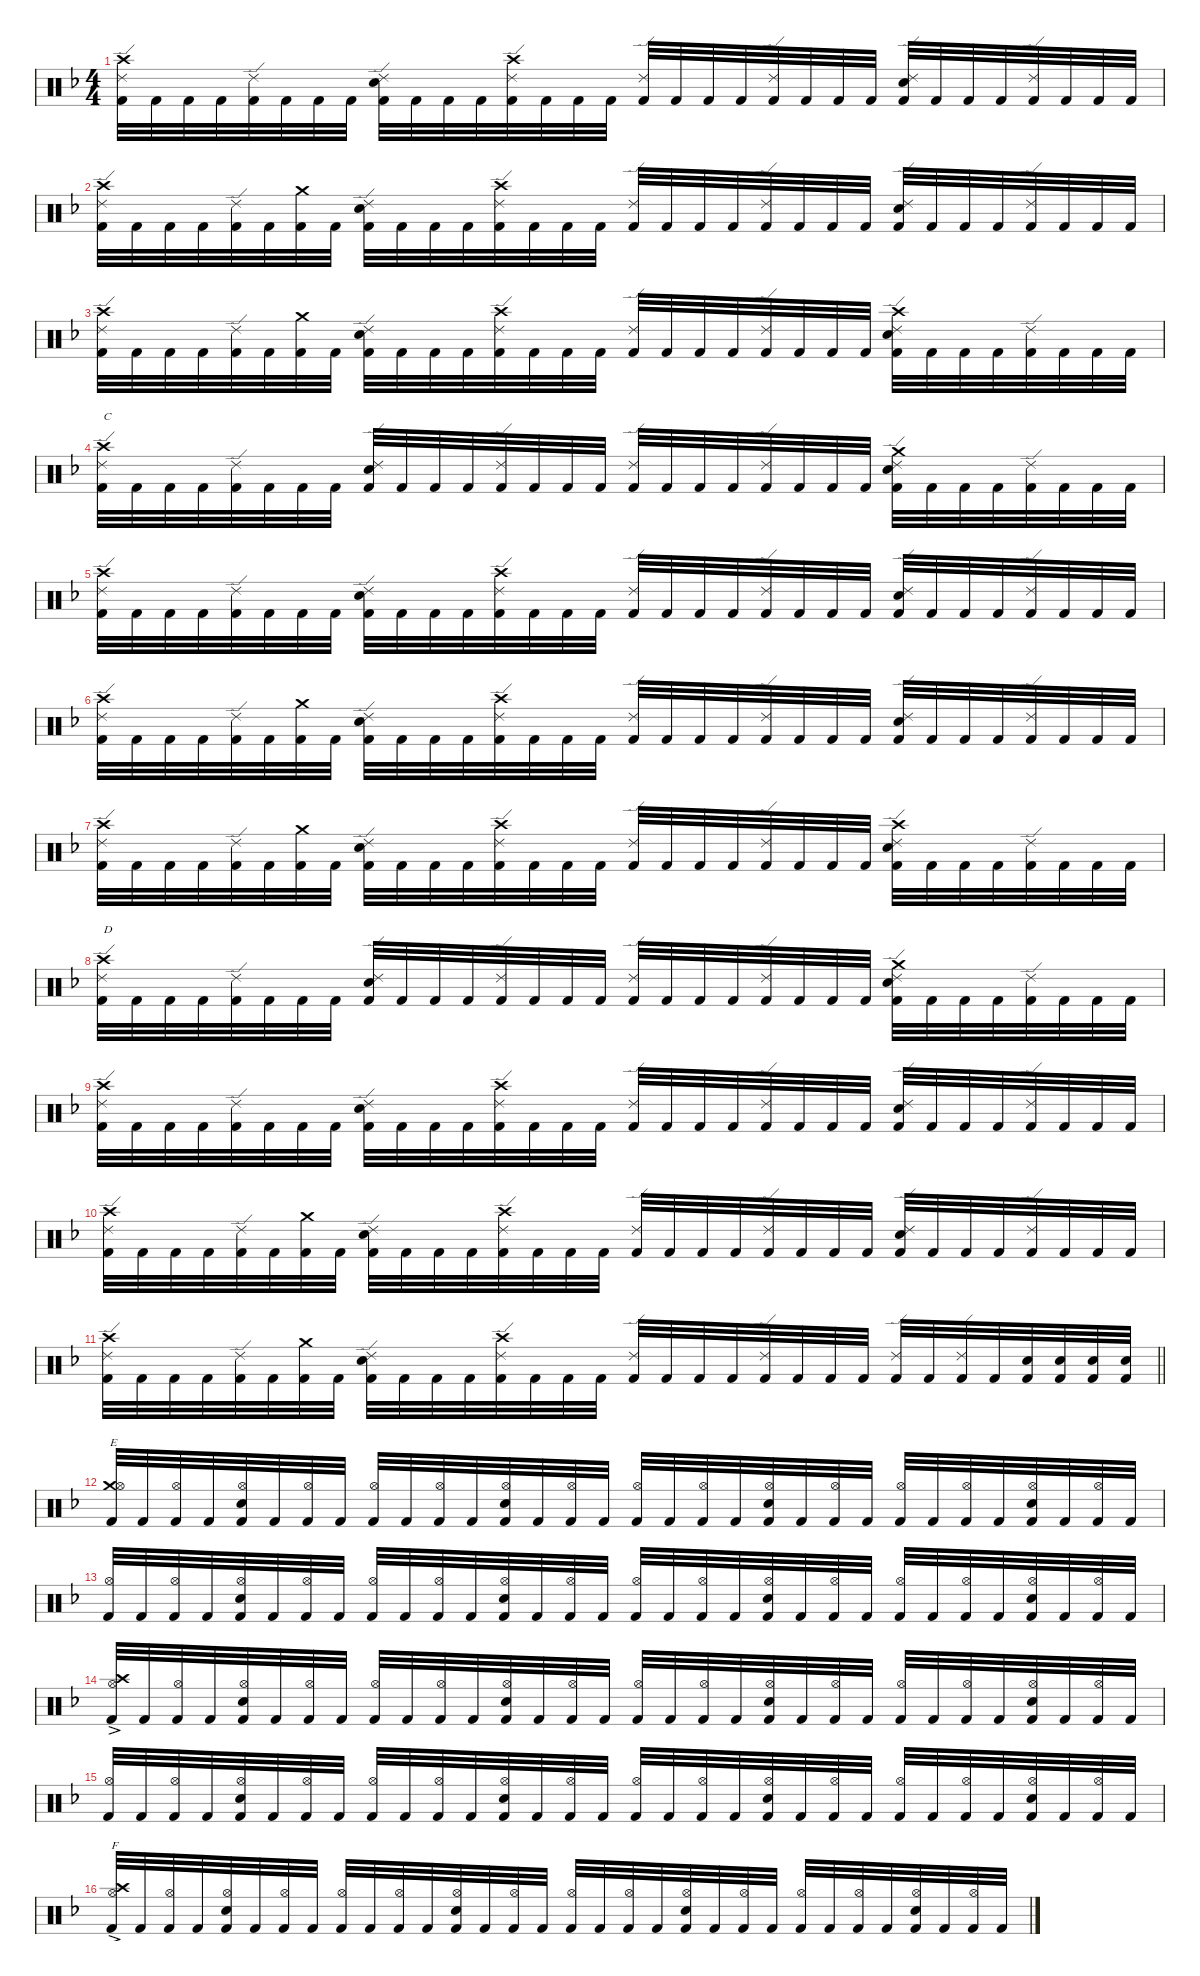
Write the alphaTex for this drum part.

\defaultSystemsLayout 4
\hideDynamics
\bracketExtendMode nobrackets
\singleTrackTrackNamePolicy hidden
\multiTrackTrackNamePolicy hidden
\otherSystemsTrackNameOrientation horizontal
\track ("Martin Lopez - Drums" "drm.") {defaultSystemsLayout 4 instrument percussion}
\staff {score}
\articulation defaults
\ts (4 4)
\tempo (85 hide)
\clef neutral
\ks dminor
("Crash high (hit)"{acc forcenatural} "Ride (edge) 2"{acc forcenatural} "Kick (hit) 2"{acc forcenatural}).32{dy f beam Down} "Kick (hit) 2"{acc forcenatural}.32{beam Down} "Kick (hit) 2"{acc forcenatural}.32{beam Down} "Kick (hit) 2"{acc forcenatural}.32{beam Down} ("Ride (edge) 2"{acc forcenatural} "Kick (hit) 2"{acc forcenatural}).32{beam Down} "Kick (hit) 2"{acc forcenatural}.32{beam Down} "Kick (hit) 2"{acc forcenatural}.32{beam Down} "Kick (hit) 2"{acc forcenatural}.32{beam Down} ("Ride (edge) 2"{acc forcenatural} "Snare (hit) 2"{acc forcenatural} "Kick (hit) 2"{acc forcenatural}).32{beam Down} "Kick (hit) 2"{acc forcenatural}.32{beam Down} "Kick (hit) 2"{acc forcenatural}.32{beam Down} "Kick (hit) 2"{acc forcenatural}.32{beam Down} ("Crash high (hit)"{acc forcenatural} "Ride (edge) 2"{acc forcenatural} "Kick (hit) 2"{acc forcenatural}).32{beam Down} "Kick (hit) 2"{acc forcenatural}.32{beam Down} "Kick (hit) 2"{acc forcenatural}.32{beam Down} "Kick (hit) 2"{acc forcenatural}.32{beam Down} ("Ride (edge) 2"{acc forcenatural} "Kick (hit) 2"{acc forcenatural}).32{beam Up} "Kick (hit) 2"{acc forcenatural}.32{beam Up} "Kick (hit) 2"{acc forcenatural}.32{beam Up} "Kick (hit) 2"{acc forcenatural}.32{beam Up} ("Ride (edge) 2"{acc forcenatural} "Kick (hit) 2"{acc forcenatural}).32{beam Up} "Kick (hit) 2"{acc forcenatural}.32{beam Up} "Kick (hit) 2"{acc forcenatural}.32{beam Up} "Kick (hit) 2"{acc forcenatural}.32{beam Up} ("Ride (edge) 2"{acc forcenatural} "Snare (hit) 2"{acc forcenatural} "Kick (hit) 2"{acc forcenatural}).32{beam Up} "Kick (hit) 2"{acc forcenatural}.32{beam Up} "Kick (hit) 2"{acc forcenatural}.32{beam Up} "Kick (hit) 2"{acc forcenatural}.32{beam Up} ("Ride (edge) 2"{acc forcenatural} "Kick (hit) 2"{acc forcenatural}).32{beam Up} "Kick (hit) 2"{acc forcenatural}.32{beam Up} "Kick (hit) 2"{acc forcenatural}.32{beam Up} "Kick (hit) 2"{acc forcenatural}.32{beam Up} |
\tempo (84 hide)
("Crash high (hit)"{acc forcenatural} "Ride (edge) 2"{acc forcenatural} "Kick (hit) 2"{acc forcenatural}).32{beam Down} "Kick (hit) 2"{acc forcenatural}.32{beam Down} "Kick (hit) 2"{acc forcenatural}.32{beam Down} "Kick (hit) 2"{acc forcenatural}.32{beam Down} ("Ride (edge) 2"{acc forcenatural} "Kick (hit) 2"{acc forcenatural}).32{beam Down} "Kick (hit) 2"{acc forcenatural}.32{beam Down} ("Crash medium (hit)"{acc forcenatural} "Kick (hit) 2"{acc forcenatural}).32{beam Down} "Kick (hit) 2"{acc forcenatural}.32{beam Down} ("Ride (edge) 2"{acc forcenatural} "Snare (hit) 2"{acc forcenatural} "Kick (hit) 2"{acc forcenatural}).32{beam Down} "Kick (hit) 2"{acc forcenatural}.32{beam Down} "Kick (hit) 2"{acc forcenatural}.32{beam Down} "Kick (hit) 2"{acc forcenatural}.32{beam Down} ("Crash high (hit)"{acc forcenatural} "Ride (edge) 2"{acc forcenatural} "Kick (hit) 2"{acc forcenatural}).32{beam Down} "Kick (hit) 2"{acc forcenatural}.32{beam Down} "Kick (hit) 2"{acc forcenatural}.32{beam Down} "Kick (hit) 2"{acc forcenatural}.32{beam Down} ("Ride (edge) 2"{acc forcenatural} "Kick (hit) 2"{acc forcenatural}).32{beam Up} "Kick (hit) 2"{acc forcenatural}.32{beam Up} "Kick (hit) 2"{acc forcenatural}.32{beam Up} "Kick (hit) 2"{acc forcenatural}.32{beam Up} ("Ride (edge) 2"{acc forcenatural} "Kick (hit) 2"{acc forcenatural}).32{beam Up} "Kick (hit) 2"{acc forcenatural}.32{beam Up} "Kick (hit) 2"{acc forcenatural}.32{beam Up} "Kick (hit) 2"{acc forcenatural}.32{beam Up} ("Ride (edge) 2"{acc forcenatural} "Snare (hit) 2"{acc forcenatural} "Kick (hit) 2"{acc forcenatural}).32{beam Up} "Kick (hit) 2"{acc forcenatural}.32{beam Up} "Kick (hit) 2"{acc forcenatural}.32{beam Up} "Kick (hit) 2"{acc forcenatural}.32{beam Up} ("Ride (edge) 2"{acc forcenatural} "Kick (hit) 2"{acc forcenatural}).32{beam Up} "Kick (hit) 2"{acc forcenatural}.32{beam Up} "Kick (hit) 2"{acc forcenatural}.32{beam Up} "Kick (hit) 2"{acc forcenatural}.32{beam Up} |
\tempo (85 hide)
("Crash high (hit)"{acc forcenatural} "Ride (edge) 2"{acc forcenatural} "Kick (hit) 2"{acc forcenatural}).32{beam Down} "Kick (hit) 2"{acc forcenatural}.32{beam Down} "Kick (hit) 2"{acc forcenatural}.32{beam Down} "Kick (hit) 2"{acc forcenatural}.32{beam Down} ("Ride (edge) 2"{acc forcenatural} "Kick (hit) 2"{acc forcenatural}).32{beam Down} "Kick (hit) 2"{acc forcenatural}.32{beam Down} ("Crash medium (hit)"{acc forcenatural} "Kick (hit) 2"{acc forcenatural}).32{beam Down} "Kick (hit) 2"{acc forcenatural}.32{beam Down} ("Ride (edge) 2"{acc forcenatural} "Snare (hit) 2"{acc forcenatural} "Kick (hit) 2"{acc forcenatural}).32{beam Down} "Kick (hit) 2"{acc forcenatural}.32{beam Down} "Kick (hit) 2"{acc forcenatural}.32{beam Down} "Kick (hit) 2"{acc forcenatural}.32{beam Down} ("Crash high (hit)"{acc forcenatural} "Ride (edge) 2"{acc forcenatural} "Kick (hit) 2"{acc forcenatural}).32{beam Down} "Kick (hit) 2"{acc forcenatural}.32{beam Down} "Kick (hit) 2"{acc forcenatural}.32{beam Down} "Kick (hit) 2"{acc forcenatural}.32{beam Down} ("Ride (edge) 2"{acc forcenatural} "Kick (hit) 2"{acc forcenatural}).32{beam Up} "Kick (hit) 2"{acc forcenatural}.32{beam Up} "Kick (hit) 2"{acc forcenatural}.32{beam Up} "Kick (hit) 2"{acc forcenatural}.32{beam Up} ("Ride (edge) 2"{acc forcenatural} "Kick (hit) 2"{acc forcenatural}).32{beam Up} "Kick (hit) 2"{acc forcenatural}.32{beam Up} "Kick (hit) 2"{acc forcenatural}.32{beam Up} "Kick (hit) 2"{acc forcenatural}.32{beam Up} ("Crash high (hit)"{acc forcenatural} "Ride (edge) 2"{acc forcenatural} "Snare (hit) 2"{acc forcenatural} "Kick (hit) 2"{acc forcenatural}).32{beam Down} "Kick (hit) 2"{acc forcenatural}.32{beam Down} "Kick (hit) 2"{acc forcenatural}.32{beam Down} "Kick (hit) 2"{acc forcenatural}.32{beam Down} ("Ride (edge) 2"{acc forcenatural} "Kick (hit) 2"{acc forcenatural}).32{beam Down} "Kick (hit) 2"{acc forcenatural}.32{beam Down} "Kick (hit) 2"{acc forcenatural}.32{beam Down} "Kick (hit) 2"{acc forcenatural}.32{beam Down} |
\tempo (84 hide)
("Crash high (hit)"{acc forcenatural} "Ride (edge) 2"{acc forcenatural} "Kick (hit) 2"{acc forcenatural}).32{txt "C" beam Down} "Kick (hit) 2"{acc forcenatural}.32{beam Down} "Kick (hit) 2"{acc forcenatural}.32{beam Down} "Kick (hit) 2"{acc forcenatural}.32{beam Down} ("Ride (edge) 2"{acc forcenatural} "Kick (hit) 2"{acc forcenatural}).32{beam Down} "Kick (hit) 2"{acc forcenatural}.32{beam Down} "Kick (hit) 2"{acc forcenatural}.32{beam Down} "Kick (hit) 2"{acc forcenatural}.32{beam Down} ("Ride (edge) 2"{acc forcenatural} "Snare (hit) 2"{acc forcenatural} "Kick (hit) 2"{acc forcenatural}).32{beam Up} "Kick (hit) 2"{acc forcenatural}.32{beam Up} "Kick (hit) 2"{acc forcenatural}.32{beam Up} "Kick (hit) 2"{acc forcenatural}.32{beam Up} ("Ride (edge) 2"{acc forcenatural} "Kick (hit) 2"{acc forcenatural}).32{beam Up} "Kick (hit) 2"{acc forcenatural}.32{beam Up} "Kick (hit) 2"{acc forcenatural}.32{beam Up} "Kick (hit) 2"{acc forcenatural}.32{beam Up} ("Ride (edge) 2"{acc forcenatural} "Kick (hit) 2"{acc forcenatural}).32{beam Up} "Kick (hit) 2"{acc forcenatural}.32{beam Up} "Kick (hit) 2"{acc forcenatural}.32{beam Up} "Kick (hit) 2"{acc forcenatural}.32{beam Up} ("Ride (edge) 2"{acc forcenatural} "Kick (hit) 2"{acc forcenatural}).32{beam Up} "Kick (hit) 2"{acc forcenatural}.32{beam Up} "Kick (hit) 2"{acc forcenatural}.32{beam Up} "Kick (hit) 2"{acc forcenatural}.32{beam Up} ("Crash medium (hit)"{acc forcenatural} "Ride (edge) 2"{acc forcenatural} "Snare (hit) 2"{acc forcenatural} "Kick (hit) 2"{acc forcenatural}).32{beam Down} "Kick (hit) 2"{acc forcenatural}.32{beam Down} "Kick (hit) 2"{acc forcenatural}.32{beam Down} "Kick (hit) 2"{acc forcenatural}.32{beam Down} ("Ride (edge) 2"{acc forcenatural} "Kick (hit) 2"{acc forcenatural}).32{beam Down} "Kick (hit) 2"{acc forcenatural}.32{beam Down} "Kick (hit) 2"{acc forcenatural}.32{beam Down} "Kick (hit) 2"{acc forcenatural}.32{beam Down} |
\tempo (85 hide)
("Crash high (hit)"{acc forcenatural} "Ride (edge) 2"{acc forcenatural} "Kick (hit) 2"{acc forcenatural}).32{beam Down} "Kick (hit) 2"{acc forcenatural}.32{beam Down} "Kick (hit) 2"{acc forcenatural}.32{beam Down} "Kick (hit) 2"{acc forcenatural}.32{beam Down} ("Ride (edge) 2"{acc forcenatural} "Kick (hit) 2"{acc forcenatural}).32{beam Down} "Kick (hit) 2"{acc forcenatural}.32{beam Down} "Kick (hit) 2"{acc forcenatural}.32{beam Down} "Kick (hit) 2"{acc forcenatural}.32{beam Down} ("Ride (edge) 2"{acc forcenatural} "Snare (hit) 2"{acc forcenatural} "Kick (hit) 2"{acc forcenatural}).32{beam Down} "Kick (hit) 2"{acc forcenatural}.32{beam Down} "Kick (hit) 2"{acc forcenatural}.32{beam Down} "Kick (hit) 2"{acc forcenatural}.32{beam Down} ("Crash high (hit)"{acc forcenatural} "Ride (edge) 2"{acc forcenatural} "Kick (hit) 2"{acc forcenatural}).32{beam Down} "Kick (hit) 2"{acc forcenatural}.32{beam Down} "Kick (hit) 2"{acc forcenatural}.32{beam Down} "Kick (hit) 2"{acc forcenatural}.32{beam Down} ("Ride (edge) 2"{acc forcenatural} "Kick (hit) 2"{acc forcenatural}).32{beam Up} "Kick (hit) 2"{acc forcenatural}.32{beam Up} "Kick (hit) 2"{acc forcenatural}.32{beam Up} "Kick (hit) 2"{acc forcenatural}.32{beam Up} ("Ride (edge) 2"{acc forcenatural} "Kick (hit) 2"{acc forcenatural}).32{beam Up} "Kick (hit) 2"{acc forcenatural}.32{beam Up} "Kick (hit) 2"{acc forcenatural}.32{beam Up} "Kick (hit) 2"{acc forcenatural}.32{beam Up} ("Ride (edge) 2"{acc forcenatural} "Snare (hit) 2"{acc forcenatural} "Kick (hit) 2"{acc forcenatural}).32{beam Up} "Kick (hit) 2"{acc forcenatural}.32{beam Up} "Kick (hit) 2"{acc forcenatural}.32{beam Up} "Kick (hit) 2"{acc forcenatural}.32{beam Up} ("Ride (edge) 2"{acc forcenatural} "Kick (hit) 2"{acc forcenatural}).32{beam Up} "Kick (hit) 2"{acc forcenatural}.32{beam Up} "Kick (hit) 2"{acc forcenatural}.32{beam Up} "Kick (hit) 2"{acc forcenatural}.32{beam Up} |
\tempo (84 hide)
("Crash high (hit)"{acc forcenatural} "Ride (edge) 2"{acc forcenatural} "Kick (hit) 2"{acc forcenatural}).32{beam Down} "Kick (hit) 2"{acc forcenatural}.32{beam Down} "Kick (hit) 2"{acc forcenatural}.32{beam Down} "Kick (hit) 2"{acc forcenatural}.32{beam Down} ("Ride (edge) 2"{acc forcenatural} "Kick (hit) 2"{acc forcenatural}).32{beam Down} "Kick (hit) 2"{acc forcenatural}.32{beam Down} ("Crash medium (hit)"{acc forcenatural} "Kick (hit) 2"{acc forcenatural}).32{beam Down} "Kick (hit) 2"{acc forcenatural}.32{beam Down} ("Ride (edge) 2"{acc forcenatural} "Snare (hit) 2"{acc forcenatural} "Kick (hit) 2"{acc forcenatural}).32{beam Down} "Kick (hit) 2"{acc forcenatural}.32{beam Down} "Kick (hit) 2"{acc forcenatural}.32{beam Down} "Kick (hit) 2"{acc forcenatural}.32{beam Down} ("Crash high (hit)"{acc forcenatural} "Ride (edge) 2"{acc forcenatural} "Kick (hit) 2"{acc forcenatural}).32{beam Down} "Kick (hit) 2"{acc forcenatural}.32{beam Down} "Kick (hit) 2"{acc forcenatural}.32{beam Down} "Kick (hit) 2"{acc forcenatural}.32{beam Down} ("Ride (edge) 2"{acc forcenatural} "Kick (hit) 2"{acc forcenatural}).32{beam Up} "Kick (hit) 2"{acc forcenatural}.32{beam Up} "Kick (hit) 2"{acc forcenatural}.32{beam Up} "Kick (hit) 2"{acc forcenatural}.32{beam Up} ("Ride (edge) 2"{acc forcenatural} "Kick (hit) 2"{acc forcenatural}).32{beam Up} "Kick (hit) 2"{acc forcenatural}.32{beam Up} "Kick (hit) 2"{acc forcenatural}.32{beam Up} "Kick (hit) 2"{acc forcenatural}.32{beam Up} ("Ride (edge) 2"{acc forcenatural} "Snare (hit) 2"{acc forcenatural} "Kick (hit) 2"{acc forcenatural}).32{beam Up} "Kick (hit) 2"{acc forcenatural}.32{beam Up} "Kick (hit) 2"{acc forcenatural}.32{beam Up} "Kick (hit) 2"{acc forcenatural}.32{beam Up} ("Ride (edge) 2"{acc forcenatural} "Kick (hit) 2"{acc forcenatural}).32{beam Up} "Kick (hit) 2"{acc forcenatural}.32{beam Up} "Kick (hit) 2"{acc forcenatural}.32{beam Up} "Kick (hit) 2"{acc forcenatural}.32{beam Up} |
\tempo (85 hide)
("Crash high (hit)"{acc forcenatural} "Ride (edge) 2"{acc forcenatural} "Kick (hit) 2"{acc forcenatural}).32{beam Down} "Kick (hit) 2"{acc forcenatural}.32{beam Down} "Kick (hit) 2"{acc forcenatural}.32{beam Down} "Kick (hit) 2"{acc forcenatural}.32{beam Down} ("Ride (edge) 2"{acc forcenatural} "Kick (hit) 2"{acc forcenatural}).32{beam Down} "Kick (hit) 2"{acc forcenatural}.32{beam Down} ("Crash medium (hit)"{acc forcenatural} "Kick (hit) 2"{acc forcenatural}).32{beam Down} "Kick (hit) 2"{acc forcenatural}.32{beam Down} ("Ride (edge) 2"{acc forcenatural} "Snare (hit) 2"{acc forcenatural} "Kick (hit) 2"{acc forcenatural}).32{beam Down} "Kick (hit) 2"{acc forcenatural}.32{beam Down} "Kick (hit) 2"{acc forcenatural}.32{beam Down} "Kick (hit) 2"{acc forcenatural}.32{beam Down} ("Crash high (hit)"{acc forcenatural} "Ride (edge) 2"{acc forcenatural} "Kick (hit) 2"{acc forcenatural}).32{beam Down} "Kick (hit) 2"{acc forcenatural}.32{beam Down} "Kick (hit) 2"{acc forcenatural}.32{beam Down} "Kick (hit) 2"{acc forcenatural}.32{beam Down} ("Ride (edge) 2"{acc forcenatural} "Kick (hit) 2"{acc forcenatural}).32{beam Up} "Kick (hit) 2"{acc forcenatural}.32{beam Up} "Kick (hit) 2"{acc forcenatural}.32{beam Up} "Kick (hit) 2"{acc forcenatural}.32{beam Up} ("Ride (edge) 2"{acc forcenatural} "Kick (hit) 2"{acc forcenatural}).32{beam Up} "Kick (hit) 2"{acc forcenatural}.32{beam Up} "Kick (hit) 2"{acc forcenatural}.32{beam Up} "Kick (hit) 2"{acc forcenatural}.32{beam Up} ("Crash high (hit)"{acc forcenatural} "Ride (edge) 2"{acc forcenatural} "Snare (hit) 2"{acc forcenatural} "Kick (hit) 2"{acc forcenatural}).32{beam Down} "Kick (hit) 2"{acc forcenatural}.32{beam Down} "Kick (hit) 2"{acc forcenatural}.32{beam Down} "Kick (hit) 2"{acc forcenatural}.32{beam Down} ("Ride (edge) 2"{acc forcenatural} "Kick (hit) 2"{acc forcenatural}).32{beam Down} "Kick (hit) 2"{acc forcenatural}.32{beam Down} "Kick (hit) 2"{acc forcenatural}.32{beam Down} "Kick (hit) 2"{acc forcenatural}.32{beam Down} |
\tempo (84 hide)
("Crash high (hit)"{acc forcenatural} "Ride (edge) 2"{acc forcenatural} "Kick (hit) 2"{acc forcenatural}).32{txt "D" beam Down} "Kick (hit) 2"{acc forcenatural}.32{beam Down} "Kick (hit) 2"{acc forcenatural}.32{beam Down} "Kick (hit) 2"{acc forcenatural}.32{beam Down} ("Ride (edge) 2"{acc forcenatural} "Kick (hit) 2"{acc forcenatural}).32{beam Down} "Kick (hit) 2"{acc forcenatural}.32{beam Down} "Kick (hit) 2"{acc forcenatural}.32{beam Down} "Kick (hit) 2"{acc forcenatural}.32{beam Down} ("Ride (edge) 2"{acc forcenatural} "Snare (hit) 2"{acc forcenatural} "Kick (hit) 2"{acc forcenatural}).32{beam Up} "Kick (hit) 2"{acc forcenatural}.32{beam Up} "Kick (hit) 2"{acc forcenatural}.32{beam Up} "Kick (hit) 2"{acc forcenatural}.32{beam Up} ("Ride (edge) 2"{acc forcenatural} "Kick (hit) 2"{acc forcenatural}).32{beam Up} "Kick (hit) 2"{acc forcenatural}.32{beam Up} "Kick (hit) 2"{acc forcenatural}.32{beam Up} "Kick (hit) 2"{acc forcenatural}.32{beam Up} ("Ride (edge) 2"{acc forcenatural} "Kick (hit) 2"{acc forcenatural}).32{beam Up} "Kick (hit) 2"{acc forcenatural}.32{beam Up} "Kick (hit) 2"{acc forcenatural}.32{beam Up} "Kick (hit) 2"{acc forcenatural}.32{beam Up} ("Ride (edge) 2"{acc forcenatural} "Kick (hit) 2"{acc forcenatural}).32{beam Up} "Kick (hit) 2"{acc forcenatural}.32{beam Up} "Kick (hit) 2"{acc forcenatural}.32{beam Up} "Kick (hit) 2"{acc forcenatural}.32{beam Up} ("Crash medium (hit)"{acc forcenatural} "Ride (edge) 2"{acc forcenatural} "Snare (hit) 2"{acc forcenatural} "Kick (hit) 2"{acc forcenatural}).32{beam Down} "Kick (hit) 2"{acc forcenatural}.32{beam Down} "Kick (hit) 2"{acc forcenatural}.32{beam Down} "Kick (hit) 2"{acc forcenatural}.32{beam Down} ("Ride (edge) 2"{acc forcenatural} "Kick (hit) 2"{acc forcenatural}).32{beam Down} "Kick (hit) 2"{acc forcenatural}.32{beam Down} "Kick (hit) 2"{acc forcenatural}.32{beam Down} "Kick (hit) 2"{acc forcenatural}.32{beam Down} |
\tempo (85 hide)
("Crash high (hit)"{acc forcenatural} "Ride (edge) 2"{acc forcenatural} "Kick (hit) 2"{acc forcenatural}).32{beam Down} "Kick (hit) 2"{acc forcenatural}.32{beam Down} "Kick (hit) 2"{acc forcenatural}.32{beam Down} "Kick (hit) 2"{acc forcenatural}.32{beam Down} ("Ride (edge) 2"{acc forcenatural} "Kick (hit) 2"{acc forcenatural}).32{beam Down} "Kick (hit) 2"{acc forcenatural}.32{beam Down} "Kick (hit) 2"{acc forcenatural}.32{beam Down} "Kick (hit) 2"{acc forcenatural}.32{beam Down} ("Ride (edge) 2"{acc forcenatural} "Snare (hit) 2"{acc forcenatural} "Kick (hit) 2"{acc forcenatural}).32{beam Down} "Kick (hit) 2"{acc forcenatural}.32{beam Down} "Kick (hit) 2"{acc forcenatural}.32{beam Down} "Kick (hit) 2"{acc forcenatural}.32{beam Down} ("Crash high (hit)"{acc forcenatural} "Ride (edge) 2"{acc forcenatural} "Kick (hit) 2"{acc forcenatural}).32{beam Down} "Kick (hit) 2"{acc forcenatural}.32{beam Down} "Kick (hit) 2"{acc forcenatural}.32{beam Down} "Kick (hit) 2"{acc forcenatural}.32{beam Down} ("Ride (edge) 2"{acc forcenatural} "Kick (hit) 2"{acc forcenatural}).32{beam Up} "Kick (hit) 2"{acc forcenatural}.32{beam Up} "Kick (hit) 2"{acc forcenatural}.32{beam Up} "Kick (hit) 2"{acc forcenatural}.32{beam Up} ("Ride (edge) 2"{acc forcenatural} "Kick (hit) 2"{acc forcenatural}).32{beam Up} "Kick (hit) 2"{acc forcenatural}.32{beam Up} "Kick (hit) 2"{acc forcenatural}.32{beam Up} "Kick (hit) 2"{acc forcenatural}.32{beam Up} ("Ride (edge) 2"{acc forcenatural} "Snare (hit) 2"{acc forcenatural} "Kick (hit) 2"{acc forcenatural}).32{beam Up} "Kick (hit) 2"{acc forcenatural}.32{beam Up} "Kick (hit) 2"{acc forcenatural}.32{beam Up} "Kick (hit) 2"{acc forcenatural}.32{beam Up} ("Ride (edge) 2"{acc forcenatural} "Kick (hit) 2"{acc forcenatural}).32{beam Up} "Kick (hit) 2"{acc forcenatural}.32{beam Up} "Kick (hit) 2"{acc forcenatural}.32{beam Up} "Kick (hit) 2"{acc forcenatural}.32{beam Up} |
\tempo (84 hide)
("Crash high (hit)"{acc forcenatural} "Ride (edge) 2"{acc forcenatural} "Kick (hit) 2"{acc forcenatural}).32{beam Down} "Kick (hit) 2"{acc forcenatural}.32{beam Down} "Kick (hit) 2"{acc forcenatural}.32{beam Down} "Kick (hit) 2"{acc forcenatural}.32{beam Down} ("Ride (edge) 2"{acc forcenatural} "Kick (hit) 2"{acc forcenatural}).32{beam Down} "Kick (hit) 2"{acc forcenatural}.32{beam Down} ("Crash medium (hit)"{acc forcenatural} "Kick (hit) 2"{acc forcenatural}).32{beam Down} "Kick (hit) 2"{acc forcenatural}.32{beam Down} ("Ride (edge) 2"{acc forcenatural} "Snare (hit) 2"{acc forcenatural} "Kick (hit) 2"{acc forcenatural}).32{beam Down} "Kick (hit) 2"{acc forcenatural}.32{beam Down} "Kick (hit) 2"{acc forcenatural}.32{beam Down} "Kick (hit) 2"{acc forcenatural}.32{beam Down} ("Crash high (hit)"{acc forcenatural} "Ride (edge) 2"{acc forcenatural} "Kick (hit) 2"{acc forcenatural}).32{beam Down} "Kick (hit) 2"{acc forcenatural}.32{beam Down} "Kick (hit) 2"{acc forcenatural}.32{beam Down} "Kick (hit) 2"{acc forcenatural}.32{beam Down} ("Ride (edge) 2"{acc forcenatural} "Kick (hit) 2"{acc forcenatural}).32{beam Up} "Kick (hit) 2"{acc forcenatural}.32{beam Up} "Kick (hit) 2"{acc forcenatural}.32{beam Up} "Kick (hit) 2"{acc forcenatural}.32{beam Up} ("Ride (edge) 2"{acc forcenatural} "Kick (hit) 2"{acc forcenatural}).32{beam Up} "Kick (hit) 2"{acc forcenatural}.32{beam Up} "Kick (hit) 2"{acc forcenatural}.32{beam Up} "Kick (hit) 2"{acc forcenatural}.32{beam Up} ("Ride (edge) 2"{acc forcenatural} "Snare (hit) 2"{acc forcenatural} "Kick (hit) 2"{acc forcenatural}).32{beam Up} "Kick (hit) 2"{acc forcenatural}.32{beam Up} "Kick (hit) 2"{acc forcenatural}.32{beam Up} "Kick (hit) 2"{acc forcenatural}.32{beam Up} ("Ride (edge) 2"{acc forcenatural} "Kick (hit) 2"{acc forcenatural}).32{beam Up} "Kick (hit) 2"{acc forcenatural}.32{beam Up} "Kick (hit) 2"{acc forcenatural}.32{beam Up} "Kick (hit) 2"{acc forcenatural}.32{beam Up} |
\tempo (85 hide)
\barLineRight lightlight
("Crash high (hit)"{acc forcenatural} "Ride (edge) 2"{acc forcenatural} "Kick (hit) 2"{acc forcenatural}).32{beam Down} "Kick (hit) 2"{acc forcenatural}.32{beam Down} "Kick (hit) 2"{acc forcenatural}.32{beam Down} "Kick (hit) 2"{acc forcenatural}.32{beam Down} ("Ride (edge) 2"{acc forcenatural} "Kick (hit) 2"{acc forcenatural}).32{beam Down} "Kick (hit) 2"{acc forcenatural}.32{beam Down} ("Crash medium (hit)"{acc forcenatural} "Kick (hit) 2"{acc forcenatural}).32{beam Down} "Kick (hit) 2"{acc forcenatural}.32{beam Down} ("Ride (edge) 2"{acc forcenatural} "Snare (hit) 2"{acc forcenatural} "Kick (hit) 2"{acc forcenatural}).32{beam Down} "Kick (hit) 2"{acc forcenatural}.32{beam Down} "Kick (hit) 2"{acc forcenatural}.32{beam Down} "Kick (hit) 2"{acc forcenatural}.32{beam Down} ("Crash high (hit)"{acc forcenatural} "Ride (edge) 2"{acc forcenatural} "Kick (hit) 2"{acc forcenatural}).32{beam Down} "Kick (hit) 2"{acc forcenatural}.32{beam Down} "Kick (hit) 2"{acc forcenatural}.32{beam Down} "Kick (hit) 2"{acc forcenatural}.32{beam Down} ("Ride (edge) 2"{acc forcenatural} "Kick (hit) 2"{acc forcenatural}).32{beam Up} "Kick (hit) 2"{acc forcenatural}.32{beam Up} "Kick (hit) 2"{acc forcenatural}.32{beam Up} "Kick (hit) 2"{acc forcenatural}.32{beam Up} ("Ride (edge) 2"{acc forcenatural} "Kick (hit) 2"{acc forcenatural}).32{beam Up} "Kick (hit) 2"{acc forcenatural}.32{beam Up} "Kick (hit) 2"{acc forcenatural}.32{beam Up} "Kick (hit) 2"{acc forcenatural}.32{beam Up} ("Ride (edge) 2"{acc forcenatural} "Kick (hit) 2"{acc forcenatural}).32{beam Up} "Kick (hit) 2"{acc forcenatural}.32{beam Up} ("Ride (edge) 2"{acc forcenatural} "Kick (hit) 2"{acc forcenatural}).32{beam Up} "Kick (hit) 2"{acc forcenatural}.32{beam Up} ("Snare (hit) 2"{acc forcenatural} "Kick (hit) 2"{acc forcenatural}).32{beam Up} ("Snare (hit) 2"{acc forcenatural} "Kick (hit) 2"{acc forcenatural}).32{beam Up} ("Snare (hit) 2"{acc forcenatural} "Kick (hit) 2"{acc forcenatural}).32{beam Up} ("Snare (hit) 2"{acc forcenatural} "Kick (hit) 2"{acc forcenatural}).32{beam Up} |
\tempo (84 0.00625 hide)
("Crash medium (hit)"{acc forcenatural} "Hi-Hat (open)"{acc forcenatural} "Kick (hit) 2"{acc forcenatural}).32{txt "E" beam Up} "Kick (hit) 2"{acc forcenatural}.32{beam Up} ("Hi-Hat (open)"{acc forcenatural} "Kick (hit) 2"{acc forcenatural}).32{beam Up} "Kick (hit) 2"{acc forcenatural}.32{beam Up} ("Hi-Hat (open)"{acc forcenatural} "Snare (hit) 2"{acc forcenatural} "Kick (hit) 2"{acc forcenatural}).32{beam Up} "Kick (hit) 2"{acc forcenatural}.32{beam Up} ("Hi-Hat (open)"{acc forcenatural} "Kick (hit) 2"{acc forcenatural}).32{beam Up} "Kick (hit) 2"{acc forcenatural}.32{beam Up} ("Hi-Hat (open)"{acc forcenatural} "Kick (hit) 2"{acc forcenatural}).32{beam Up} "Kick (hit) 2"{acc forcenatural}.32{beam Up} ("Hi-Hat (open)"{acc forcenatural} "Kick (hit) 2"{acc forcenatural}).32{beam Up} "Kick (hit) 2"{acc forcenatural}.32{beam Up} ("Hi-Hat (open)"{acc forcenatural} "Snare (hit) 2"{acc forcenatural} "Kick (hit) 2"{acc forcenatural}).32{beam Up} "Kick (hit) 2"{acc forcenatural}.32{beam Up} ("Hi-Hat (open)"{acc forcenatural} "Kick (hit) 2"{acc forcenatural}).32{beam Up} "Kick (hit) 2"{acc forcenatural}.32{beam Up} ("Hi-Hat (open)"{acc forcenatural} "Kick (hit) 2"{acc forcenatural}).32{beam Up} "Kick (hit) 2"{acc forcenatural}.32{beam Up} ("Hi-Hat (open)"{acc forcenatural} "Kick (hit) 2"{acc forcenatural}).32{beam Up} "Kick (hit) 2"{acc forcenatural}.32{beam Up} ("Hi-Hat (open)"{acc forcenatural} "Snare (hit) 2"{acc forcenatural} "Kick (hit) 2"{acc forcenatural}).32{beam Up} "Kick (hit) 2"{acc forcenatural}.32{beam Up} ("Hi-Hat (open)"{acc forcenatural} "Kick (hit) 2"{acc forcenatural}).32{beam Up} "Kick (hit) 2"{acc forcenatural}.32{beam Up} ("Hi-Hat (open)"{acc forcenatural} "Kick (hit) 2"{acc forcenatural}).32{beam Up} "Kick (hit) 2"{acc forcenatural}.32{beam Up} ("Hi-Hat (open)"{acc forcenatural} "Kick (hit) 2"{acc forcenatural}).32{beam Up} "Kick (hit) 2"{acc forcenatural}.32{beam Up} ("Hi-Hat (open)"{acc forcenatural} "Snare (hit) 2"{acc forcenatural} "Kick (hit) 2"{acc forcenatural}).32{beam Up} "Kick (hit) 2"{acc forcenatural}.32{beam Up} ("Hi-Hat (open)"{acc forcenatural} "Kick (hit) 2"{acc forcenatural}).32{beam Up} "Kick (hit) 2"{acc forcenatural}.32{beam Up} |
\tempo (85 0.00625 hide)
("Hi-Hat (open)"{acc forcenatural} "Kick (hit) 2"{acc forcenatural}).32{beam Up} "Kick (hit) 2"{acc forcenatural}.32{beam Up} ("Hi-Hat (open)"{acc forcenatural} "Kick (hit) 2"{acc forcenatural}).32{beam Up} "Kick (hit) 2"{acc forcenatural}.32{beam Up} ("Hi-Hat (open)"{acc forcenatural} "Snare (hit) 2"{acc forcenatural} "Kick (hit) 2"{acc forcenatural}).32{beam Up} "Kick (hit) 2"{acc forcenatural}.32{beam Up} ("Hi-Hat (open)"{acc forcenatural} "Kick (hit) 2"{acc forcenatural}).32{beam Up} "Kick (hit) 2"{acc forcenatural}.32{beam Up} ("Hi-Hat (open)"{acc forcenatural} "Kick (hit) 2"{acc forcenatural}).32{beam Up} "Kick (hit) 2"{acc forcenatural}.32{beam Up} ("Hi-Hat (open)"{acc forcenatural} "Kick (hit) 2"{acc forcenatural}).32{beam Up} "Kick (hit) 2"{acc forcenatural}.32{beam Up} ("Hi-Hat (open)"{acc forcenatural} "Snare (hit) 2"{acc forcenatural} "Kick (hit) 2"{acc forcenatural}).32{beam Up} "Kick (hit) 2"{acc forcenatural}.32{beam Up} ("Hi-Hat (open)"{acc forcenatural} "Kick (hit) 2"{acc forcenatural}).32{beam Up} "Kick (hit) 2"{acc forcenatural}.32{beam Up} ("Hi-Hat (open)"{acc forcenatural} "Kick (hit) 2"{acc forcenatural}).32{beam Up} "Kick (hit) 2"{acc forcenatural}.32{beam Up} ("Hi-Hat (open)"{acc forcenatural} "Kick (hit) 2"{acc forcenatural}).32{beam Up} "Kick (hit) 2"{acc forcenatural}.32{beam Up} ("Hi-Hat (open)"{acc forcenatural} "Snare (hit) 2"{acc forcenatural} "Kick (hit) 2"{acc forcenatural}).32{beam Up} "Kick (hit) 2"{acc forcenatural}.32{beam Up} ("Hi-Hat (open)"{acc forcenatural} "Kick (hit) 2"{acc forcenatural}).32{beam Up} "Kick (hit) 2"{acc forcenatural}.32{beam Up} ("Hi-Hat (open)"{acc forcenatural} "Kick (hit) 2"{acc forcenatural}).32{beam Up} "Kick (hit) 2"{acc forcenatural}.32{beam Up} ("Hi-Hat (open)"{acc forcenatural} "Kick (hit) 2"{acc forcenatural}).32{beam Up} "Kick (hit) 2"{acc forcenatural}.32{beam Up} ("Hi-Hat (open)"{acc forcenatural} "Snare (hit) 2"{acc forcenatural} "Kick (hit) 2"{acc forcenatural}).32{beam Up} "Kick (hit) 2"{acc forcenatural}.32{beam Up} ("Hi-Hat (open)"{acc forcenatural} "Kick (hit) 2"{acc forcenatural}).32{beam Up} "Kick (hit) 2"{acc forcenatural}.32{beam Up} |
\tempo (84 hide)
("Crash high (hit)"{ac acc forcenatural} "Hi-Hat (open)"{acc forcenatural} "Kick (hit) 2"{acc forcenatural}).32{beam Up} "Kick (hit) 2"{acc forcenatural}.32{beam Up} ("Hi-Hat (open)"{acc forcenatural} "Kick (hit) 2"{acc forcenatural}).32{beam Up} "Kick (hit) 2"{acc forcenatural}.32{beam Up} ("Hi-Hat (open)"{acc forcenatural} "Snare (hit) 2"{acc forcenatural} "Kick (hit) 2"{acc forcenatural}).32{beam Up} "Kick (hit) 2"{acc forcenatural}.32{beam Up} ("Hi-Hat (open)"{acc forcenatural} "Kick (hit) 2"{acc forcenatural}).32{beam Up} "Kick (hit) 2"{acc forcenatural}.32{beam Up} ("Hi-Hat (open)"{acc forcenatural} "Kick (hit) 2"{acc forcenatural}).32{beam Up} "Kick (hit) 2"{acc forcenatural}.32{beam Up} ("Hi-Hat (open)"{acc forcenatural} "Kick (hit) 2"{acc forcenatural}).32{beam Up} "Kick (hit) 2"{acc forcenatural}.32{beam Up} ("Hi-Hat (open)"{acc forcenatural} "Snare (hit) 2"{acc forcenatural} "Kick (hit) 2"{acc forcenatural}).32{beam Up} "Kick (hit) 2"{acc forcenatural}.32{beam Up} ("Hi-Hat (open)"{acc forcenatural} "Kick (hit) 2"{acc forcenatural}).32{beam Up} "Kick (hit) 2"{acc forcenatural}.32{beam Up} ("Hi-Hat (open)"{acc forcenatural} "Kick (hit) 2"{acc forcenatural}).32{beam Up} "Kick (hit) 2"{acc forcenatural}.32{beam Up} ("Hi-Hat (open)"{acc forcenatural} "Kick (hit) 2"{acc forcenatural}).32{beam Up} "Kick (hit) 2"{acc forcenatural}.32{beam Up} ("Hi-Hat (open)"{acc forcenatural} "Snare (hit) 2"{acc forcenatural} "Kick (hit) 2"{acc forcenatural}).32{beam Up} "Kick (hit) 2"{acc forcenatural}.32{beam Up} ("Hi-Hat (open)"{acc forcenatural} "Kick (hit) 2"{acc forcenatural}).32{beam Up} "Kick (hit) 2"{acc forcenatural}.32{beam Up} ("Hi-Hat (open)"{acc forcenatural} "Kick (hit) 2"{acc forcenatural}).32{beam Up} "Kick (hit) 2"{acc forcenatural}.32{beam Up} ("Hi-Hat (open)"{acc forcenatural} "Kick (hit) 2"{acc forcenatural}).32{beam Up} "Kick (hit) 2"{acc forcenatural}.32{beam Up} ("Hi-Hat (open)"{acc forcenatural} "Snare (hit) 2"{acc forcenatural} "Kick (hit) 2"{acc forcenatural}).32{beam Up} "Kick (hit) 2"{acc forcenatural}.32{beam Up} ("Hi-Hat (open)"{acc forcenatural} "Kick (hit) 2"{acc forcenatural}).32{beam Up} "Kick (hit) 2"{acc forcenatural}.32{beam Up} |
\tempo (85 hide)
("Hi-Hat (open)"{acc forcenatural} "Kick (hit) 2"{acc forcenatural}).32{beam Up} "Kick (hit) 2"{acc forcenatural}.32{beam Up} ("Hi-Hat (open)"{acc forcenatural} "Kick (hit) 2"{acc forcenatural}).32{beam Up} "Kick (hit) 2"{acc forcenatural}.32{beam Up} ("Hi-Hat (open)"{acc forcenatural} "Snare (hit) 2"{acc forcenatural} "Kick (hit) 2"{acc forcenatural}).32{beam Up} "Kick (hit) 2"{acc forcenatural}.32{beam Up} ("Hi-Hat (open)"{acc forcenatural} "Kick (hit) 2"{acc forcenatural}).32{beam Up} "Kick (hit) 2"{acc forcenatural}.32{beam Up} ("Hi-Hat (open)"{acc forcenatural} "Kick (hit) 2"{acc forcenatural}).32{beam Up} "Kick (hit) 2"{acc forcenatural}.32{beam Up} ("Hi-Hat (open)"{acc forcenatural} "Kick (hit) 2"{acc forcenatural}).32{beam Up} "Kick (hit) 2"{acc forcenatural}.32{beam Up} ("Hi-Hat (open)"{acc forcenatural} "Snare (hit) 2"{acc forcenatural} "Kick (hit) 2"{acc forcenatural}).32{beam Up} "Kick (hit) 2"{acc forcenatural}.32{beam Up} ("Hi-Hat (open)"{acc forcenatural} "Kick (hit) 2"{acc forcenatural}).32{beam Up} "Kick (hit) 2"{acc forcenatural}.32{beam Up} ("Hi-Hat (open)"{acc forcenatural} "Kick (hit) 2"{acc forcenatural}).32{beam Up} "Kick (hit) 2"{acc forcenatural}.32{beam Up} ("Hi-Hat (open)"{acc forcenatural} "Kick (hit) 2"{acc forcenatural}).32{beam Up} "Kick (hit) 2"{acc forcenatural}.32{beam Up} ("Hi-Hat (open)"{acc forcenatural} "Snare (hit) 2"{acc forcenatural} "Kick (hit) 2"{acc forcenatural}).32{beam Up} "Kick (hit) 2"{acc forcenatural}.32{beam Up} ("Hi-Hat (open)"{acc forcenatural} "Kick (hit) 2"{acc forcenatural}).32{beam Up} "Kick (hit) 2"{acc forcenatural}.32{beam Up} ("Hi-Hat (open)"{acc forcenatural} "Kick (hit) 2"{acc forcenatural}).32{beam Up} "Kick (hit) 2"{acc forcenatural}.32{beam Up} ("Hi-Hat (open)"{acc forcenatural} "Kick (hit) 2"{acc forcenatural}).32{beam Up} "Kick (hit) 2"{acc forcenatural}.32{beam Up} ("Hi-Hat (open)"{acc forcenatural} "Snare (hit) 2"{acc forcenatural} "Kick (hit) 2"{acc forcenatural}).32{beam Up} "Kick (hit) 2"{acc forcenatural}.32{beam Up} ("Hi-Hat (open)"{acc forcenatural} "Kick (hit) 2"{acc forcenatural}).32{beam Up} "Kick (hit) 2"{acc forcenatural}.32{beam Up} |
\tempo (84 0.00625 hide)
("Crash high (hit)"{ac acc forcenatural} "Hi-Hat (open)"{acc forcenatural} "Kick (hit) 2"{acc forcenatural}).32{txt "F" beam Up} "Kick (hit) 2"{acc forcenatural}.32{beam Up} ("Hi-Hat (open)"{acc forcenatural} "Kick (hit) 2"{acc forcenatural}).32{beam Up} "Kick (hit) 2"{acc forcenatural}.32{beam Up} ("Hi-Hat (open)"{acc forcenatural} "Snare (hit) 2"{acc forcenatural} "Kick (hit) 2"{acc forcenatural}).32{beam Up} "Kick (hit) 2"{acc forcenatural}.32{beam Up} ("Hi-Hat (open)"{acc forcenatural} "Kick (hit) 2"{acc forcenatural}).32{beam Up} "Kick (hit) 2"{acc forcenatural}.32{beam Up} ("Hi-Hat (open)"{acc forcenatural} "Kick (hit) 2"{acc forcenatural}).32{beam Up} "Kick (hit) 2"{acc forcenatural}.32{beam Up} ("Hi-Hat (open)"{acc forcenatural} "Kick (hit) 2"{acc forcenatural}).32{beam Up} "Kick (hit) 2"{acc forcenatural}.32{beam Up} ("Hi-Hat (open)"{acc forcenatural} "Snare (hit) 2"{acc forcenatural} "Kick (hit) 2"{acc forcenatural}).32{beam Up} "Kick (hit) 2"{acc forcenatural}.32{beam Up} ("Hi-Hat (open)"{acc forcenatural} "Kick (hit) 2"{acc forcenatural}).32{beam Up} "Kick (hit) 2"{acc forcenatural}.32{beam Up} ("Hi-Hat (open)"{acc forcenatural} "Kick (hit) 2"{acc forcenatural}).32{beam Up} "Kick (hit) 2"{acc forcenatural}.32{beam Up} ("Hi-Hat (open)"{acc forcenatural} "Kick (hit) 2"{acc forcenatural}).32{beam Up} "Kick (hit) 2"{acc forcenatural}.32{beam Up} ("Hi-Hat (open)"{acc forcenatural} "Snare (hit) 2"{acc forcenatural} "Kick (hit) 2"{acc forcenatural}).32{beam Up} "Kick (hit) 2"{acc forcenatural}.32{beam Up} ("Hi-Hat (open)"{acc forcenatural} "Kick (hit) 2"{acc forcenatural}).32{beam Up} "Kick (hit) 2"{acc forcenatural}.32{beam Up} ("Hi-Hat (open)"{acc forcenatural} "Kick (hit) 2"{acc forcenatural}).32{beam Up} "Kick (hit) 2"{acc forcenatural}.32{beam Up} ("Hi-Hat (open)"{acc forcenatural} "Kick (hit) 2"{acc forcenatural}).32{beam Up} "Kick (hit) 2"{acc forcenatural}.32{beam Up} ("Hi-Hat (open)"{acc forcenatural} "Snare (hit) 2"{acc forcenatural} "Kick (hit) 2"{acc forcenatural}).32{beam Up} "Kick (hit) 2"{acc forcenatural}.32{beam Up} ("Hi-Hat (open)"{acc forcenatural} "Kick (hit) 2"{acc forcenatural}).32{beam Up} "Kick (hit) 2"{acc forcenatural}.32{beam Up}
